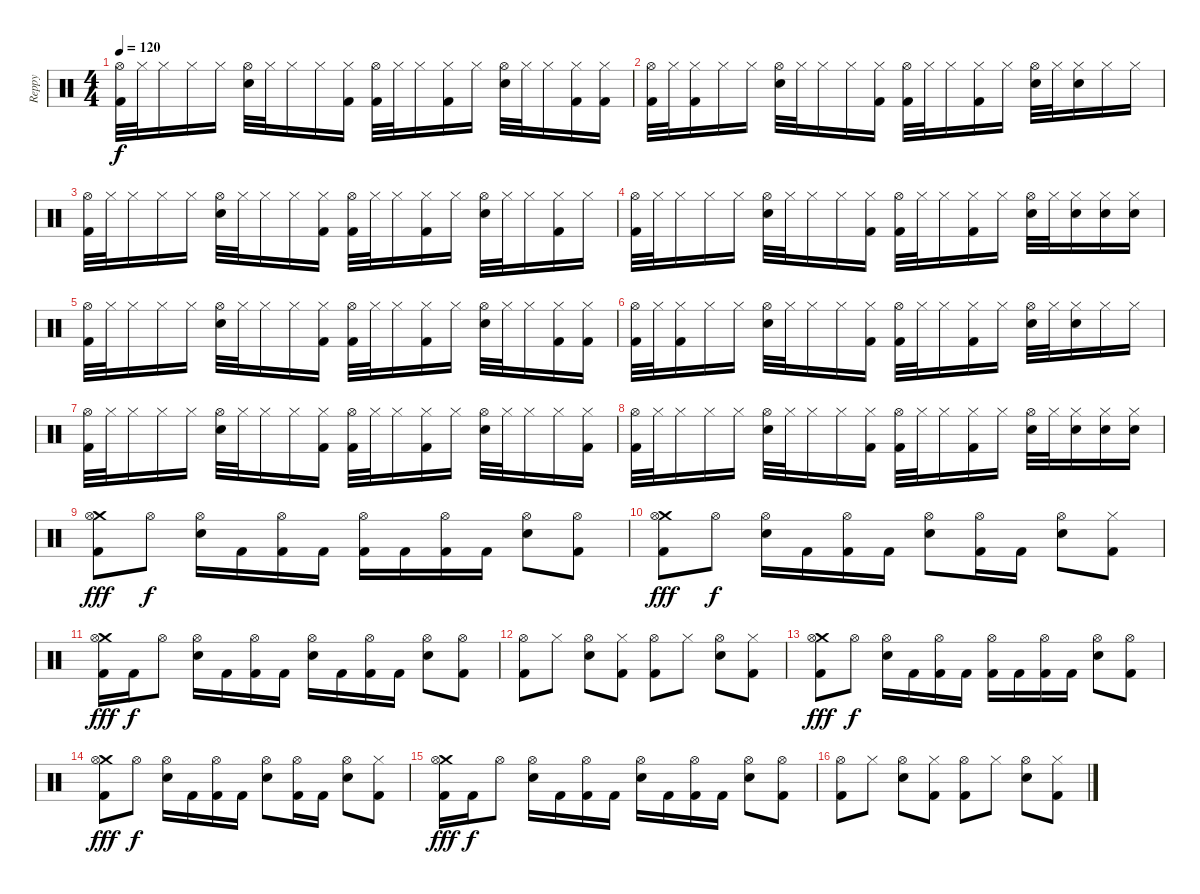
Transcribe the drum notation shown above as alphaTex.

\track ("Reppy" "Reppy") {instrument percussion}
\staff {score}
\articulation defaults
\ts (4 4)
\tempo 120
\clef neutral
\ks c
("Hi-Hat (open)" "Kick (hit) 2").32{dy f} "Hi-Hat (closed)".32 "Hi-Hat (closed)".16 "Hi-Hat (closed)".16 "Hi-Hat (closed)".16 ("Hi-Hat (open)" "Electric Snare (hit)").32 "Hi-Hat (closed)".32 "Hi-Hat (closed)".16 "Hi-Hat (closed)".16 ("Hi-Hat (closed)" "Kick (hit) 2").16 ("Hi-Hat (open)" "Kick (hit) 2").32 "Hi-Hat (closed)".32 "Hi-Hat (closed)".16 ("Hi-Hat (closed)" "Kick (hit) 2").16 "Hi-Hat (closed)".16 ("Hi-Hat (open)" "Electric Snare (hit)").32 "Hi-Hat (closed)".32 "Hi-Hat (closed)".16 ("Hi-Hat (closed)" "Kick (hit) 2").16 ("Hi-Hat (closed)" "Kick (hit) 2").16 |
("Hi-Hat (open)" "Kick (hit) 2").32 "Hi-Hat (closed)".32 ("Hi-Hat (closed)" "Kick (hit) 2").16 "Hi-Hat (closed)".16 "Hi-Hat (closed)".16 ("Hi-Hat (open)" "Electric Snare (hit)").32 "Hi-Hat (closed)".32 "Hi-Hat (closed)".16 "Hi-Hat (closed)".16 ("Hi-Hat (closed)" "Kick (hit) 2").16 ("Hi-Hat (open)" "Kick (hit) 2").32 "Hi-Hat (closed)".32 "Hi-Hat (closed)".16 ("Hi-Hat (closed)" "Kick (hit) 2").16 "Hi-Hat (closed)".16 ("Hi-Hat (open)" "Electric Snare (hit)").32 "Hi-Hat (closed)".32 ("Hi-Hat (closed)" "Electric Snare (hit)").16 "Hi-Hat (closed)".16 "Hi-Hat (closed)".16 |
("Hi-Hat (open)" "Kick (hit) 2").32 "Hi-Hat (closed)".32 "Hi-Hat (closed)".16 "Hi-Hat (closed)".16 "Hi-Hat (closed)".16 ("Hi-Hat (open)" "Electric Snare (hit)").32 "Hi-Hat (closed)".32 "Hi-Hat (closed)".16 "Hi-Hat (closed)".16 ("Hi-Hat (closed)" "Kick (hit) 2").16 ("Hi-Hat (open)" "Kick (hit) 2").32 "Hi-Hat (closed)".32 "Hi-Hat (closed)".16 ("Hi-Hat (closed)" "Kick (hit) 2").16 "Hi-Hat (closed)".16 ("Hi-Hat (open)" "Electric Snare (hit)").32 "Hi-Hat (closed)".32 "Hi-Hat (closed)".16 ("Hi-Hat (closed)" "Kick (hit) 2").16 "Hi-Hat (closed)".16 |
("Hi-Hat (open)" "Kick (hit) 2").32 "Hi-Hat (closed)".32 "Hi-Hat (closed)".16 "Hi-Hat (closed)".16 "Hi-Hat (closed)".16 ("Hi-Hat (open)" "Electric Snare (hit)").32 "Hi-Hat (closed)".32 "Hi-Hat (closed)".16 "Hi-Hat (closed)".16 ("Hi-Hat (closed)" "Kick (hit) 2").16 ("Hi-Hat (open)" "Kick (hit) 2").32 "Hi-Hat (closed)".32 "Hi-Hat (closed)".16 ("Hi-Hat (closed)" "Kick (hit) 2").16 "Hi-Hat (closed)".16 ("Hi-Hat (open)" "Electric Snare (hit)").32 "Hi-Hat (closed)".32 ("Hi-Hat (closed)" "Electric Snare (hit)").16 ("Hi-Hat (closed)" "Electric Snare (hit)").16 ("Hi-Hat (closed)" "Electric Snare (hit)").16 |
("Hi-Hat (open)" "Kick (hit) 2").32 "Hi-Hat (closed)".32 "Hi-Hat (closed)".16 "Hi-Hat (closed)".16 "Hi-Hat (closed)".16 ("Hi-Hat (open)" "Electric Snare (hit)").32 "Hi-Hat (closed)".32 "Hi-Hat (closed)".16 "Hi-Hat (closed)".16 ("Hi-Hat (closed)" "Kick (hit) 2").16 ("Hi-Hat (open)" "Kick (hit) 2").32 "Hi-Hat (closed)".32 "Hi-Hat (closed)".16 ("Hi-Hat (closed)" "Kick (hit) 2").16 "Hi-Hat (closed)".16 ("Hi-Hat (open)" "Electric Snare (hit)").32 "Hi-Hat (closed)".32 "Hi-Hat (closed)".16 ("Hi-Hat (closed)" "Kick (hit) 2").16 ("Hi-Hat (closed)" "Kick (hit) 2").16 |
("Hi-Hat (open)" "Kick (hit) 2").32 "Hi-Hat (closed)".32 ("Hi-Hat (closed)" "Kick (hit) 2").16 "Hi-Hat (closed)".16 "Hi-Hat (closed)".16 ("Hi-Hat (open)" "Electric Snare (hit)").32 "Hi-Hat (closed)".32 "Hi-Hat (closed)".16 "Hi-Hat (closed)".16 ("Hi-Hat (closed)" "Kick (hit) 2").16 ("Hi-Hat (open)" "Kick (hit) 2").32 "Hi-Hat (closed)".32 "Hi-Hat (closed)".16 ("Hi-Hat (closed)" "Kick (hit) 2").16 "Hi-Hat (closed)".16 ("Hi-Hat (open)" "Electric Snare (hit)").32 "Hi-Hat (closed)".32 ("Hi-Hat (closed)" "Electric Snare (hit)").16 "Hi-Hat (closed)".16 "Hi-Hat (closed)".16 |
("Hi-Hat (open)" "Kick (hit) 2").32 "Hi-Hat (closed)".32 "Hi-Hat (closed)".16 "Hi-Hat (closed)".16 "Hi-Hat (closed)".16 ("Hi-Hat (open)" "Electric Snare (hit)").32 "Hi-Hat (closed)".32 "Hi-Hat (closed)".16 "Hi-Hat (closed)".16 ("Hi-Hat (closed)" "Kick (hit) 2").16 ("Hi-Hat (open)" "Kick (hit) 2").32 "Hi-Hat (closed)".32 "Hi-Hat (closed)".16 ("Hi-Hat (closed)" "Kick (hit) 2").16 "Hi-Hat (closed)".16 ("Hi-Hat (open)" "Electric Snare (hit)").32 "Hi-Hat (closed)".32 "Hi-Hat (closed)".16 "Hi-Hat (closed)".16 ("Hi-Hat (closed)" "Kick (hit) 2").16 |
("Hi-Hat (open)" "Kick (hit) 2").32 "Hi-Hat (closed)".32 "Hi-Hat (closed)".16 "Hi-Hat (closed)".16 "Hi-Hat (closed)".16 ("Hi-Hat (open)" "Electric Snare (hit)").32 "Hi-Hat (closed)".32 "Hi-Hat (closed)".16 "Hi-Hat (closed)".16 ("Hi-Hat (closed)" "Kick (hit) 2").16 ("Hi-Hat (open)" "Kick (hit) 2").32 "Hi-Hat (closed)".32 "Hi-Hat (closed)".16 ("Hi-Hat (closed)" "Kick (hit) 2").16 "Hi-Hat (closed)".16 ("Hi-Hat (open)" "Electric Snare (hit)").32 "Hi-Hat (closed)".32 ("Hi-Hat (closed)" "Electric Snare (hit)").16 ("Hi-Hat (closed)" "Electric Snare (hit)").16 ("Hi-Hat (closed)" "Electric Snare (hit)").16 |
("Crash medium (hit)" "Hi-Hat (open)" "Kick (hit) 2").8{dy fff} "Hi-Hat (open)".8{dy f} ("Hi-Hat (open)" "Electric Snare (hit)").16 "Kick (hit) 2".16 ("Hi-Hat (open)" "Kick (hit) 2").16 "Kick (hit) 2".16 ("Hi-Hat (open)" "Kick (hit) 2").16 "Kick (hit) 2".16 ("Hi-Hat (open)" "Kick (hit) 2").16 "Kick (hit) 2".16 ("Hi-Hat (open)" "Electric Snare (hit)").8 ("Hi-Hat (open)" "Kick (hit) 2").8 |
("Crash medium (hit)" "Hi-Hat (open)" "Kick (hit) 2").8{dy fff} "Hi-Hat (open)".8{dy f} ("Hi-Hat (open)" "Electric Snare (hit)").16 "Kick (hit) 2".16 ("Hi-Hat (open)" "Kick (hit) 2").16 "Kick (hit) 2".16 ("Hi-Hat (open)" "Electric Snare (hit)").8 ("Hi-Hat (open)" "Kick (hit) 2").16 "Kick (hit) 2".16 ("Hi-Hat (open)" "Electric Snare (hit)").8 ("Hi-Hat (closed)" "Kick (hit) 2").8 |
("Crash medium (hit)" "Hi-Hat (open)" "Kick (hit) 2").16{dy fff} "Kick (hit) 2".16{dy f} "Hi-Hat (open)".8 ("Hi-Hat (open)" "Electric Snare (hit)").16 "Kick (hit) 2".16 ("Hi-Hat (open)" "Kick (hit) 2").16 "Kick (hit) 2".16 ("Hi-Hat (open)" "Electric Snare (hit)").16 "Kick (hit) 2".16 ("Hi-Hat (open)" "Kick (hit) 2").16 "Kick (hit) 2".16 ("Hi-Hat (open)" "Electric Snare (hit)").8 ("Hi-Hat (open)" "Kick (hit) 2").8 |
("Hi-Hat (open)" "Kick (hit) 2").8 "Hi-Hat (closed)".8 ("Hi-Hat (open)" "Electric Snare (hit)").8 ("Hi-Hat (closed)" "Kick (hit) 2").8 ("Hi-Hat (open)" "Kick (hit) 2").8 "Hi-Hat (closed)".8 ("Hi-Hat (open)" "Electric Snare (hit)").8 ("Hi-Hat (closed)" "Kick (hit) 2").8 |
("Crash medium (hit)" "Hi-Hat (open)" "Kick (hit) 2").8{dy fff} "Hi-Hat (open)".8{dy f} ("Hi-Hat (open)" "Electric Snare (hit)").16 "Kick (hit) 2".16 ("Hi-Hat (open)" "Kick (hit) 2").16 "Kick (hit) 2".16 ("Hi-Hat (open)" "Kick (hit) 2").16 "Kick (hit) 2".16 ("Hi-Hat (open)" "Kick (hit) 2").16 "Kick (hit) 2".16 ("Hi-Hat (open)" "Electric Snare (hit)").8 ("Hi-Hat (open)" "Kick (hit) 2").8 |
("Crash medium (hit)" "Hi-Hat (open)" "Kick (hit) 2").8{dy fff} "Hi-Hat (open)".8{dy f} ("Hi-Hat (open)" "Electric Snare (hit)").16 "Kick (hit) 2".16 ("Hi-Hat (open)" "Kick (hit) 2").16 "Kick (hit) 2".16 ("Hi-Hat (open)" "Electric Snare (hit)").8 ("Hi-Hat (open)" "Kick (hit) 2").16 "Kick (hit) 2".16 ("Hi-Hat (open)" "Electric Snare (hit)").8 ("Hi-Hat (closed)" "Kick (hit) 2").8 |
("Crash medium (hit)" "Hi-Hat (open)" "Kick (hit) 2").16{dy fff} "Kick (hit) 2".16{dy f} "Hi-Hat (open)".8 ("Hi-Hat (open)" "Electric Snare (hit)").16 "Kick (hit) 2".16 ("Hi-Hat (open)" "Kick (hit) 2").16 "Kick (hit) 2".16 ("Hi-Hat (open)" "Electric Snare (hit)").16 "Kick (hit) 2".16 ("Hi-Hat (open)" "Kick (hit) 2").16 "Kick (hit) 2".16 ("Hi-Hat (open)" "Electric Snare (hit)").8 ("Hi-Hat (open)" "Kick (hit) 2").8 |
("Hi-Hat (open)" "Kick (hit) 2").8 "Hi-Hat (closed)".8 ("Hi-Hat (open)" "Electric Snare (hit)").8 ("Hi-Hat (closed)" "Kick (hit) 2").8 ("Hi-Hat (open)" "Kick (hit) 2").8 "Hi-Hat (closed)".8 ("Hi-Hat (open)" "Electric Snare (hit)").8 ("Hi-Hat (closed)" "Kick (hit) 2").8
